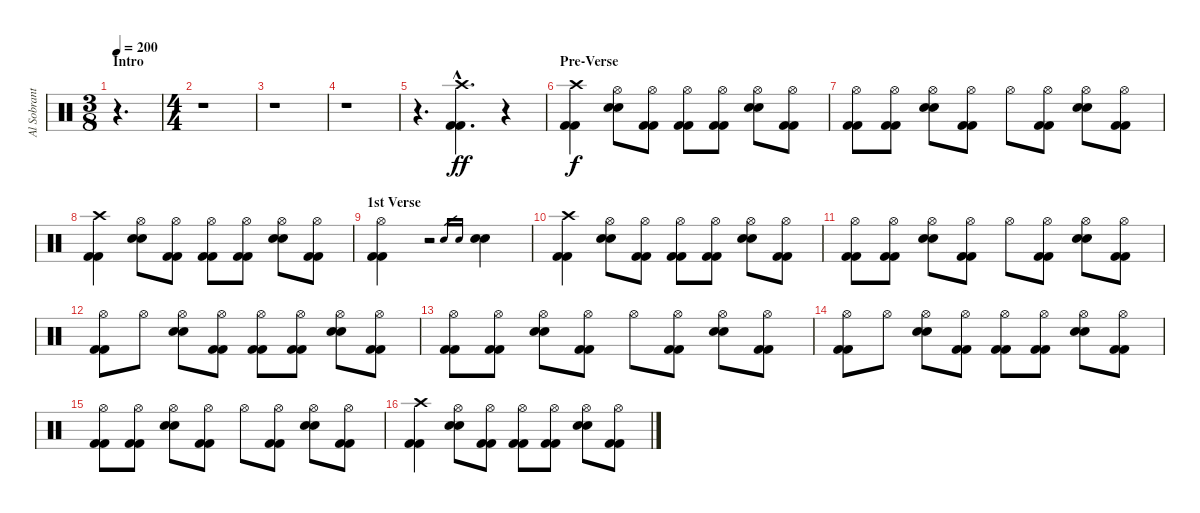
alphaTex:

\track ("Al Sobrante (Drums)" "Al Sobrant") {instrument percussion}
\staff {score}
\articulation defaults
\ts (3 8)
\section ("" "Intro")
\tempo 200
\clef neutral
\ks c
r.4{d dy ff} |
\ts (4 4)
r.1 |
r.1 |
r.1 |
r.4{d} ("Kick (hit) 2"{hac} "Kick (hit) 2"{hac} "Crash high (hit)"{hac}).4{d} r.4 |
\section ("" "Pre-Verse")
("Kick (hit) 2" "Kick (hit) 2" "Crash high (hit)").4{dy f} ("Electric Snare (hit)" "Electric Snare (hit)" "Hi-Hat (open)").8 ("Kick (hit) 2" "Kick (hit) 2" "Hi-Hat (open)").8 ("Kick (hit) 2" "Kick (hit) 2" "Hi-Hat (open)").8 ("Kick (hit) 2" "Kick (hit) 2" "Hi-Hat (open)").8 ("Electric Snare (hit)" "Electric Snare (hit)" "Hi-Hat (open)").8 ("Kick (hit) 2" "Kick (hit) 2" "Hi-Hat (open)").8 |
("Kick (hit) 2" "Kick (hit) 2" "Hi-Hat (open)").8 ("Kick (hit) 2" "Kick (hit) 2" "Hi-Hat (open)").8 ("Electric Snare (hit)" "Electric Snare (hit)" "Hi-Hat (open)").8 ("Kick (hit) 2" "Kick (hit) 2" "Hi-Hat (open)").8 "Hi-Hat (open)".8 ("Kick (hit) 2" "Kick (hit) 2" "Hi-Hat (open)").8 ("Electric Snare (hit)" "Electric Snare (hit)" "Hi-Hat (open)").8 ("Kick (hit) 2" "Kick (hit) 2" "Hi-Hat (open)").8 |
("Kick (hit) 2" "Kick (hit) 2" "Crash high (hit)").4 ("Electric Snare (hit)" "Electric Snare (hit)" "Hi-Hat (open)").8 ("Kick (hit) 2" "Kick (hit) 2" "Hi-Hat (open)").8 ("Kick (hit) 2" "Kick (hit) 2" "Hi-Hat (open)").8 ("Kick (hit) 2" "Kick (hit) 2" "Hi-Hat (open)").8 ("Electric Snare (hit)" "Electric Snare (hit)" "Hi-Hat (open)").8 ("Kick (hit) 2" "Kick (hit) 2" "Hi-Hat (open)").8 |
\section ("" "1st Verse")
("Kick (hit) 2" "Kick (hit) 2" "Hi-Hat (open)").4 r.2 "Electric Snare (hit)".16{gr} "Snare (hit) 2".16{gr} ("Electric Snare (hit)" "Electric Snare (hit)").4 |
("Kick (hit) 2" "Kick (hit) 2" "Crash high (hit)").4 ("Electric Snare (hit)" "Electric Snare (hit)" "Hi-Hat (open)").8 ("Kick (hit) 2" "Kick (hit) 2" "Hi-Hat (open)").8 ("Kick (hit) 2" "Kick (hit) 2" "Hi-Hat (open)").8 ("Kick (hit) 2" "Kick (hit) 2" "Hi-Hat (open)").8 ("Electric Snare (hit)" "Electric Snare (hit)" "Hi-Hat (open)").8 ("Kick (hit) 2" "Kick (hit) 2" "Hi-Hat (open)").8 |
("Kick (hit) 2" "Kick (hit) 2" "Hi-Hat (open)").8 ("Kick (hit) 2" "Kick (hit) 2" "Hi-Hat (open)").8 ("Electric Snare (hit)" "Electric Snare (hit)" "Hi-Hat (open)").8 ("Kick (hit) 2" "Kick (hit) 2" "Hi-Hat (open)").8 "Hi-Hat (open)".8 ("Kick (hit) 2" "Kick (hit) 2" "Hi-Hat (open)").8 ("Electric Snare (hit)" "Electric Snare (hit)" "Hi-Hat (open)").8 ("Kick (hit) 2" "Kick (hit) 2" "Hi-Hat (open)").8 |
("Kick (hit) 2" "Kick (hit) 2" "Hi-Hat (open)").8 "Hi-Hat (open)".8 ("Electric Snare (hit)" "Electric Snare (hit)" "Hi-Hat (open)").8 ("Kick (hit) 2" "Kick (hit) 2" "Hi-Hat (open)").8 ("Kick (hit) 2" "Kick (hit) 2" "Hi-Hat (open)").8 ("Kick (hit) 2" "Kick (hit) 2" "Hi-Hat (open)").8 ("Electric Snare (hit)" "Electric Snare (hit)" "Hi-Hat (open)").8 ("Kick (hit) 2" "Kick (hit) 2" "Hi-Hat (open)").8 |
("Kick (hit) 2" "Kick (hit) 2" "Hi-Hat (open)").8 ("Kick (hit) 2" "Kick (hit) 2" "Hi-Hat (open)").8 ("Electric Snare (hit)" "Electric Snare (hit)" "Hi-Hat (open)").8 ("Kick (hit) 2" "Kick (hit) 2" "Hi-Hat (open)").8 "Hi-Hat (open)".8 ("Kick (hit) 2" "Kick (hit) 2" "Hi-Hat (open)").8 ("Electric Snare (hit)" "Electric Snare (hit)" "Hi-Hat (open)").8 ("Kick (hit) 2" "Kick (hit) 2" "Hi-Hat (open)").8 |
("Kick (hit) 2" "Kick (hit) 2" "Hi-Hat (open)").8 "Hi-Hat (open)".8 ("Electric Snare (hit)" "Electric Snare (hit)" "Hi-Hat (open)").8 ("Kick (hit) 2" "Kick (hit) 2" "Hi-Hat (open)").8 ("Kick (hit) 2" "Kick (hit) 2" "Hi-Hat (open)").8 ("Kick (hit) 2" "Kick (hit) 2" "Hi-Hat (open)").8 ("Electric Snare (hit)" "Electric Snare (hit)" "Hi-Hat (open)").8 ("Kick (hit) 2" "Kick (hit) 2" "Hi-Hat (open)").8 |
("Kick (hit) 2" "Kick (hit) 2" "Hi-Hat (open)").8 ("Kick (hit) 2" "Kick (hit) 2" "Hi-Hat (open)").8 ("Electric Snare (hit)" "Electric Snare (hit)" "Hi-Hat (open)").8 ("Kick (hit) 2" "Kick (hit) 2" "Hi-Hat (open)").8 "Hi-Hat (open)".8 ("Kick (hit) 2" "Kick (hit) 2" "Hi-Hat (open)").8 ("Electric Snare (hit)" "Electric Snare (hit)" "Hi-Hat (open)").8 ("Kick (hit) 2" "Kick (hit) 2" "Hi-Hat (open)").8 |
("Kick (hit) 2" "Kick (hit) 2" "Crash high (hit)").4 ("Electric Snare (hit)" "Electric Snare (hit)" "Hi-Hat (open)").8 ("Kick (hit) 2" "Kick (hit) 2" "Hi-Hat (open)").8 ("Kick (hit) 2" "Kick (hit) 2" "Hi-Hat (open)").8 ("Kick (hit) 2" "Kick (hit) 2" "Hi-Hat (open)").8 ("Electric Snare (hit)" "Electric Snare (hit)" "Hi-Hat (open)").8 ("Kick (hit) 2" "Kick (hit) 2" "Hi-Hat (open)").8
